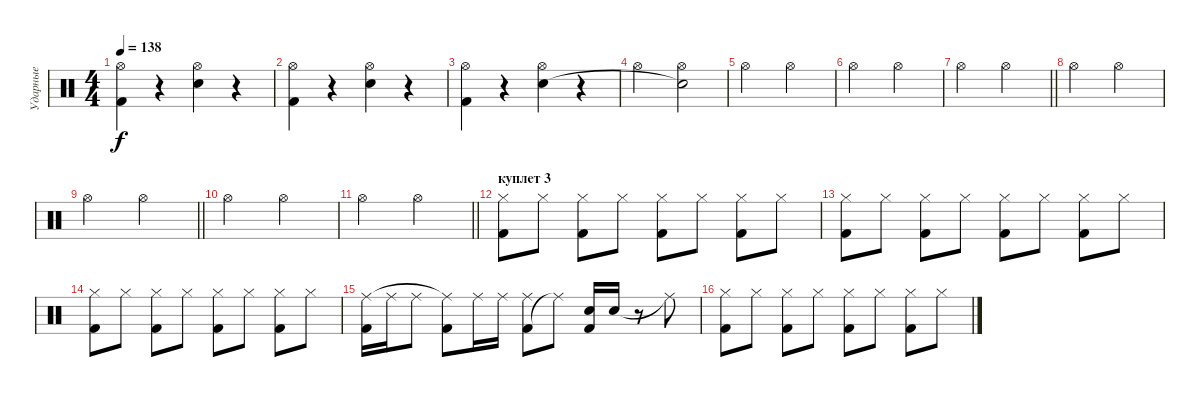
\track ("Ударные" "Ударные") {instrument percussion}
\staff {score}
\articulation defaults
\ts (4 4)
\tempo 138
\clef neutral
\ks c
("Hi-Hat (open)" "Kick (hit) 2").4{dy f} r.4 ("Hi-Hat (open)" "Snare (hit) 2").4 r.4 |
("Hi-Hat (open)" "Kick (hit) 2").4 r.4 ("Hi-Hat (open)" "Snare (hit) 2").4 r.4 |
("Hi-Hat (open)" "Kick (hit) 2").4 r.4 ("Hi-Hat (open)" "Snare (hit) 2").4 r.4 |
"Hi-Hat (open)".2{volume 13} ("Hi-Hat (open)" "Snare (hit)"{t}).2 |
"Hi-Hat (open)".2 "Hi-Hat (open)".2 |
"Hi-Hat (open)".2 "Hi-Hat (open)".2 |
\barLineRight lightlight "Hi-Hat (open)".2 "Hi-Hat (open)".2
|
"Hi-Hat (open)".2{volume 16} "Hi-Hat (open)".2 |
\barLineRight lightlight "Hi-Hat (open)".2 "Hi-Hat (open)".2
|
"Hi-Hat (open)".2 "Hi-Hat (open)".2 |
\barLineRight lightlight "Hi-Hat (open)".2 "Hi-Hat (open)".2
|
\section ("" "куплет 3")
("Kick (hit) 2" "Hi-Hat (closed)").8 "Hi-Hat (closed)".8 ("Kick (hit) 2" "Hi-Hat (closed)").8 "Hi-Hat (closed)".8 ("Kick (hit) 2" "Hi-Hat (closed)").8 "Hi-Hat (closed)".8 ("Kick (hit) 2" "Hi-Hat (closed)").8 "Hi-Hat (closed)".8 |
("Kick (hit) 2" "Hi-Hat (closed)").8 "Hi-Hat (closed)".8 ("Kick (hit) 2" "Hi-Hat (closed)").8 "Hi-Hat (closed)".8 ("Kick (hit) 2" "Hi-Hat (closed)").8 "Hi-Hat (closed)".8 ("Kick (hit) 2" "Hi-Hat (closed)").8 "Hi-Hat (closed)".8 |
("Kick (hit) 2" "Hi-Hat (closed)").8 "Hi-Hat (closed)".8 ("Kick (hit) 2" "Hi-Hat (closed)").8 "Hi-Hat (closed)".8 ("Kick (hit) 2" "Hi-Hat (closed)").8 "Hi-Hat (closed)".8 ("Kick (hit) 2" "Hi-Hat (closed)").8 "Hi-Hat (closed)".8 |
("Kick (hit) 2" "Ride (middle)").16 "Ride (middle)".16 "Ride (middle)".8 ("Kick (hit) 2" "Ride (middle)"{t}).8 "Ride (middle)".16 "Ride (middle)".16 ("Kick (hit) 2" "Ride (middle)").8 "Ride (middle)"{t}.8 ("Kick (hit) 2" "Snare (hit) 2").16 "Snare (hit) 2".16 r.8 "Ride (middle)"{t}.8 |
("Kick (hit) 2" "Hi-Hat (closed)").8 "Hi-Hat (closed)".8 ("Kick (hit) 2" "Hi-Hat (closed)").8 "Hi-Hat (closed)".8 ("Kick (hit) 2" "Hi-Hat (closed)").8 "Hi-Hat (closed)".8 ("Kick (hit) 2" "Hi-Hat (closed)").8 "Hi-Hat (closed)".8
